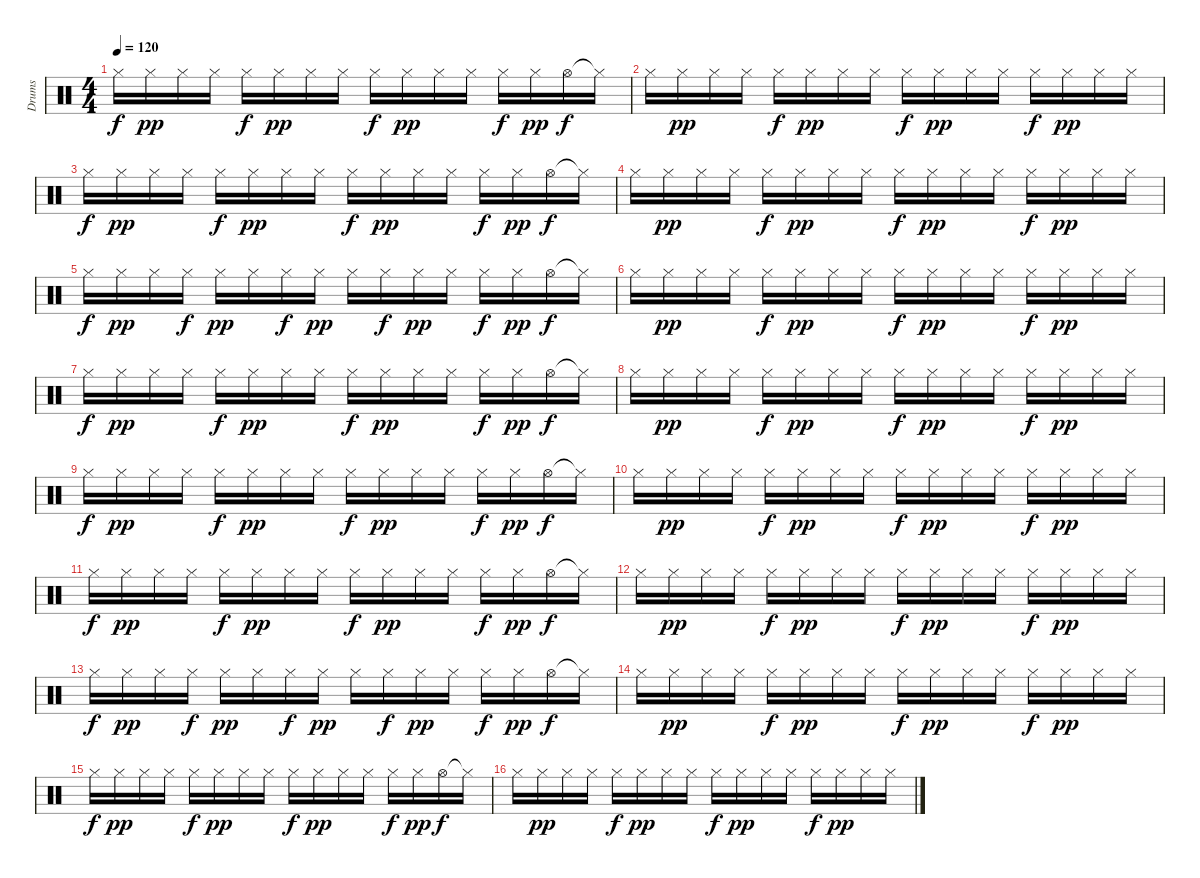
\track ("Drums" "Drums") {instrument percussion}
\staff {score}
\articulation defaults
\ts (4 4)
\tempo 120
\clef neutral
\ks c "Hi-Hat (closed)".16{dy f} "Hi-Hat (closed)".16{dy pp} "Hi-Hat (closed)".16 "Hi-Hat (closed)".16 "Hi-Hat (closed)".16{dy f} "Hi-Hat (closed)".16{dy pp} "Hi-Hat (closed)".16 "Hi-Hat (closed)".16 "Hi-Hat (closed)".16{dy f} "Hi-Hat (closed)".16{dy pp} "Hi-Hat (closed)".16 "Hi-Hat (closed)".16 "Hi-Hat (closed)".16{dy f} "Hi-Hat (closed)".16{dy pp} "Hi-Hat (open)".16{dy f} "Hi-Hat (closed)"{t}.16
|
"Hi-Hat (closed)".16 "Hi-Hat (closed)".16{dy pp} "Hi-Hat (closed)".16 "Hi-Hat (closed)".16 "Hi-Hat (closed)".16{dy f} "Hi-Hat (closed)".16{dy pp} "Hi-Hat (closed)".16 "Hi-Hat (closed)".16 "Hi-Hat (closed)".16{dy f} "Hi-Hat (closed)".16{dy pp} "Hi-Hat (closed)".16 "Hi-Hat (closed)".16 "Hi-Hat (closed)".16{dy f} "Hi-Hat (closed)".16{dy pp} "Hi-Hat (closed)".16 "Hi-Hat (closed)".16 |
"Hi-Hat (closed)".16{dy f} "Hi-Hat (closed)".16{dy pp} "Hi-Hat (closed)".16 "Hi-Hat (closed)".16 "Hi-Hat (closed)".16{dy f} "Hi-Hat (closed)".16{dy pp} "Hi-Hat (closed)".16 "Hi-Hat (closed)".16 "Hi-Hat (closed)".16{dy f} "Hi-Hat (closed)".16{dy pp} "Hi-Hat (closed)".16 "Hi-Hat (closed)".16 "Hi-Hat (closed)".16{dy f} "Hi-Hat (closed)".16{dy pp} "Hi-Hat (open)".16{dy f} "Hi-Hat (closed)"{t}.16 |
"Hi-Hat (closed)".16 "Hi-Hat (closed)".16{dy pp} "Hi-Hat (closed)".16 "Hi-Hat (closed)".16 "Hi-Hat (closed)".16{dy f} "Hi-Hat (closed)".16{dy pp} "Hi-Hat (closed)".16 "Hi-Hat (closed)".16 "Hi-Hat (closed)".16{dy f} "Hi-Hat (closed)".16{dy pp} "Hi-Hat (closed)".16 "Hi-Hat (closed)".16 "Hi-Hat (closed)".16{dy f} "Hi-Hat (closed)".16{dy pp} "Hi-Hat (closed)".16 "Hi-Hat (closed)".16 |
"Hi-Hat (closed)".16{dy f} "Hi-Hat (closed)".16{dy pp} "Hi-Hat (closed)".16 "Hi-Hat (closed)".16{dy f} "Hi-Hat (closed)".16{dy pp} "Hi-Hat (closed)".16 "Hi-Hat (closed)".16{dy f} "Hi-Hat (closed)".16{dy pp} "Hi-Hat (closed)".16 "Hi-Hat (closed)".16{dy f} "Hi-Hat (closed)".16{dy pp} "Hi-Hat (closed)".16 "Hi-Hat (closed)".16{dy f} "Hi-Hat (closed)".16{dy pp} "Hi-Hat (open)".16{dy f} "Hi-Hat (closed)"{t}.16 |
"Hi-Hat (closed)".16 "Hi-Hat (closed)".16{dy pp} "Hi-Hat (closed)".16 "Hi-Hat (closed)".16 "Hi-Hat (closed)".16{dy f} "Hi-Hat (closed)".16{dy pp} "Hi-Hat (closed)".16 "Hi-Hat (closed)".16 "Hi-Hat (closed)".16{dy f} "Hi-Hat (closed)".16{dy pp} "Hi-Hat (closed)".16 "Hi-Hat (closed)".16 "Hi-Hat (closed)".16{dy f} "Hi-Hat (closed)".16{dy pp} "Hi-Hat (closed)".16 "Hi-Hat (closed)".16 |
"Hi-Hat (closed)".16{dy f} "Hi-Hat (closed)".16{dy pp} "Hi-Hat (closed)".16 "Hi-Hat (closed)".16 "Hi-Hat (closed)".16{dy f} "Hi-Hat (closed)".16{dy pp} "Hi-Hat (closed)".16 "Hi-Hat (closed)".16 "Hi-Hat (closed)".16{dy f} "Hi-Hat (closed)".16{dy pp} "Hi-Hat (closed)".16 "Hi-Hat (closed)".16 "Hi-Hat (closed)".16{dy f} "Hi-Hat (closed)".16{dy pp} "Hi-Hat (open)".16{dy f} "Hi-Hat (closed)"{t}.16 |
"Hi-Hat (closed)".16 "Hi-Hat (closed)".16{dy pp} "Hi-Hat (closed)".16 "Hi-Hat (closed)".16 "Hi-Hat (closed)".16{dy f} "Hi-Hat (closed)".16{dy pp} "Hi-Hat (closed)".16 "Hi-Hat (closed)".16 "Hi-Hat (closed)".16{dy f} "Hi-Hat (closed)".16{dy pp} "Hi-Hat (closed)".16 "Hi-Hat (closed)".16 "Hi-Hat (closed)".16{dy f} "Hi-Hat (closed)".16{dy pp} "Hi-Hat (closed)".16 "Hi-Hat (closed)".16 |
"Hi-Hat (closed)".16{dy f} "Hi-Hat (closed)".16{dy pp} "Hi-Hat (closed)".16 "Hi-Hat (closed)".16 "Hi-Hat (closed)".16{dy f} "Hi-Hat (closed)".16{dy pp} "Hi-Hat (closed)".16 "Hi-Hat (closed)".16 "Hi-Hat (closed)".16{dy f} "Hi-Hat (closed)".16{dy pp} "Hi-Hat (closed)".16 "Hi-Hat (closed)".16 "Hi-Hat (closed)".16{dy f} "Hi-Hat (closed)".16{dy pp} "Hi-Hat (open)".16{dy f} "Hi-Hat (closed)"{t}.16 |
"Hi-Hat (closed)".16 "Hi-Hat (closed)".16{dy pp} "Hi-Hat (closed)".16 "Hi-Hat (closed)".16 "Hi-Hat (closed)".16{dy f} "Hi-Hat (closed)".16{dy pp} "Hi-Hat (closed)".16 "Hi-Hat (closed)".16 "Hi-Hat (closed)".16{dy f} "Hi-Hat (closed)".16{dy pp} "Hi-Hat (closed)".16 "Hi-Hat (closed)".16 "Hi-Hat (closed)".16{dy f} "Hi-Hat (closed)".16{dy pp} "Hi-Hat (closed)".16 "Hi-Hat (closed)".16 |
"Hi-Hat (closed)".16{dy f} "Hi-Hat (closed)".16{dy pp} "Hi-Hat (closed)".16 "Hi-Hat (closed)".16 "Hi-Hat (closed)".16{dy f} "Hi-Hat (closed)".16{dy pp} "Hi-Hat (closed)".16 "Hi-Hat (closed)".16 "Hi-Hat (closed)".16{dy f} "Hi-Hat (closed)".16{dy pp} "Hi-Hat (closed)".16 "Hi-Hat (closed)".16 "Hi-Hat (closed)".16{dy f} "Hi-Hat (closed)".16{dy pp} "Hi-Hat (open)".16{dy f} "Hi-Hat (closed)"{t}.16 |
"Hi-Hat (closed)".16 "Hi-Hat (closed)".16{dy pp} "Hi-Hat (closed)".16 "Hi-Hat (closed)".16 "Hi-Hat (closed)".16{dy f} "Hi-Hat (closed)".16{dy pp} "Hi-Hat (closed)".16 "Hi-Hat (closed)".16 "Hi-Hat (closed)".16{dy f} "Hi-Hat (closed)".16{dy pp} "Hi-Hat (closed)".16 "Hi-Hat (closed)".16 "Hi-Hat (closed)".16{dy f} "Hi-Hat (closed)".16{dy pp} "Hi-Hat (closed)".16 "Hi-Hat (closed)".16 |
"Hi-Hat (closed)".16{dy f} "Hi-Hat (closed)".16{dy pp} "Hi-Hat (closed)".16 "Hi-Hat (closed)".16{dy f} "Hi-Hat (closed)".16{dy pp} "Hi-Hat (closed)".16 "Hi-Hat (closed)".16{dy f} "Hi-Hat (closed)".16{dy pp} "Hi-Hat (closed)".16 "Hi-Hat (closed)".16{dy f} "Hi-Hat (closed)".16{dy pp} "Hi-Hat (closed)".16 "Hi-Hat (closed)".16{dy f} "Hi-Hat (closed)".16{dy pp} "Hi-Hat (open)".16{dy f} "Hi-Hat (closed)"{t}.16 |
"Hi-Hat (closed)".16 "Hi-Hat (closed)".16{dy pp} "Hi-Hat (closed)".16 "Hi-Hat (closed)".16 "Hi-Hat (closed)".16{dy f} "Hi-Hat (closed)".16{dy pp} "Hi-Hat (closed)".16 "Hi-Hat (closed)".16 "Hi-Hat (closed)".16{dy f} "Hi-Hat (closed)".16{dy pp} "Hi-Hat (closed)".16 "Hi-Hat (closed)".16 "Hi-Hat (closed)".16{dy f} "Hi-Hat (closed)".16{dy pp} "Hi-Hat (closed)".16 "Hi-Hat (closed)".16 |
"Hi-Hat (closed)".16{dy f} "Hi-Hat (closed)".16{dy pp} "Hi-Hat (closed)".16 "Hi-Hat (closed)".16 "Hi-Hat (closed)".16{dy f} "Hi-Hat (closed)".16{dy pp} "Hi-Hat (closed)".16 "Hi-Hat (closed)".16 "Hi-Hat (closed)".16{dy f} "Hi-Hat (closed)".16{dy pp} "Hi-Hat (closed)".16 "Hi-Hat (closed)".16 "Hi-Hat (closed)".16{dy f} "Hi-Hat (closed)".16{dy pp} "Hi-Hat (open)".16{dy f} "Hi-Hat (closed)"{t}.16 |
"Hi-Hat (closed)".16 "Hi-Hat (closed)".16{dy pp} "Hi-Hat (closed)".16 "Hi-Hat (closed)".16 "Hi-Hat (closed)".16{dy f} "Hi-Hat (closed)".16{dy pp} "Hi-Hat (closed)".16 "Hi-Hat (closed)".16 "Hi-Hat (closed)".16{dy f} "Hi-Hat (closed)".16{dy pp} "Hi-Hat (closed)".16 "Hi-Hat (closed)".16 "Hi-Hat (closed)".16{dy f} "Hi-Hat (closed)".16{dy pp} "Hi-Hat (closed)".16 "Hi-Hat (closed)".16
